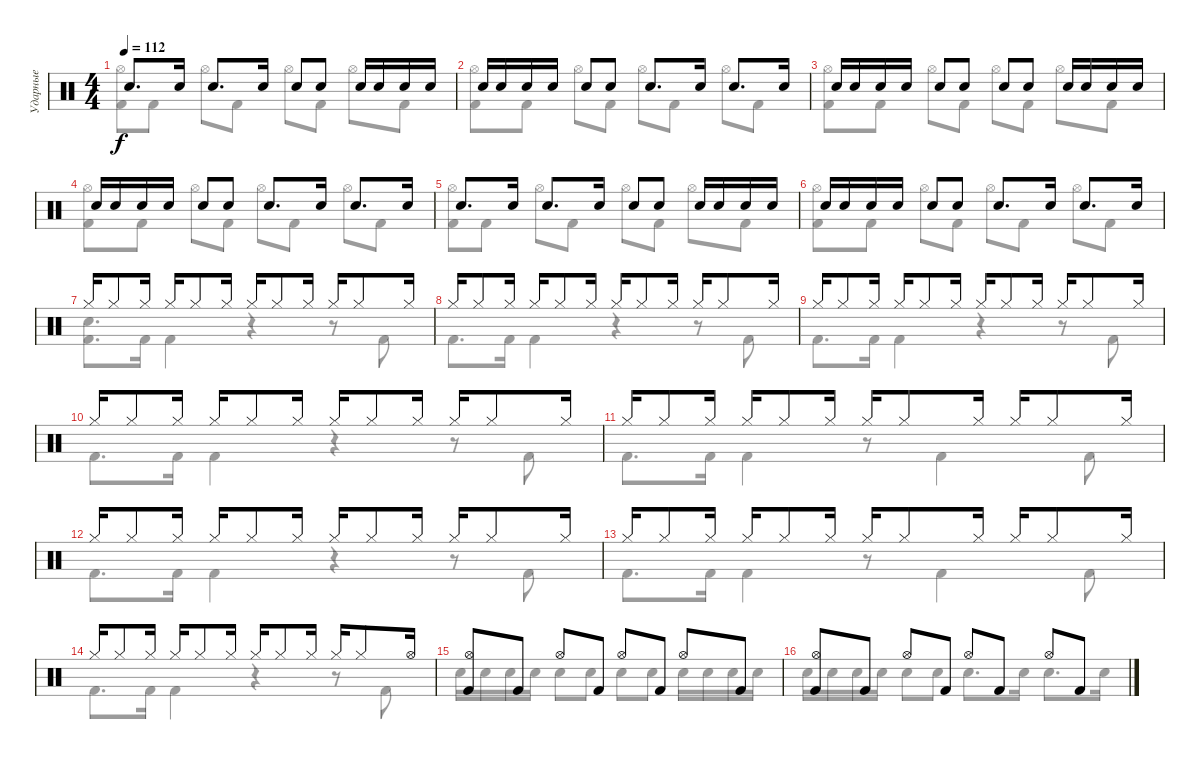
\track ("Ударные" "Ударные") {instrument percussion}
\staff {score}
\articulation defaults
\voice
\ts (4 4)
\tempo 112
\clef neutral
\ks c "Snare (hit) 2".8{d dy f} "Snare (hit) 2".16 "Snare (hit) 2".8{d} "Snare (hit) 2".16 "Snare (hit) 2".8 "Snare (hit) 2".8 "Snare (hit) 2".16 "Snare (hit) 2".16 "Snare (hit) 2".16 "Snare (hit) 2".16
|
"Snare (hit) 2".16 "Snare (hit) 2".16 "Snare (hit) 2".16 "Snare (hit) 2".16 "Snare (hit) 2".8 "Snare (hit) 2".8 "Snare (hit) 2".8{d} "Snare (hit) 2".16 "Snare (hit) 2".8{d} "Snare (hit) 2".16 |
"Snare (hit) 2".16 "Snare (hit) 2".16 "Snare (hit) 2".16 "Snare (hit) 2".16 "Snare (hit) 2".8 "Snare (hit) 2".8 "Snare (hit) 2".8 "Snare (hit) 2".8 "Snare (hit) 2".16 "Snare (hit) 2".16 "Snare (hit) 2".16 "Snare (hit) 2".16 |
"Snare (hit) 2".16 "Snare (hit) 2".16 "Snare (hit) 2".16 "Snare (hit) 2".16 "Snare (hit) 2".8 "Snare (hit) 2".8 "Snare (hit) 2".8{d} "Snare (hit) 2".16 "Snare (hit) 2".8{d} "Snare (hit) 2".16 |
"Snare (hit) 2".8{d} "Snare (hit) 2".16 "Snare (hit) 2".8{d} "Snare (hit) 2".16 "Snare (hit) 2".8 "Snare (hit) 2".8 "Snare (hit) 2".16 "Snare (hit) 2".16 "Snare (hit) 2".16 "Snare (hit) 2".16 |
"Snare (hit) 2".16 "Snare (hit) 2".16 "Snare (hit) 2".16 "Snare (hit) 2".16 "Snare (hit) 2".8 "Snare (hit) 2".8 "Snare (hit) 2".8{d} "Snare (hit) 2".16 "Snare (hit) 2".8{d} "Snare (hit) 2".16 |
"Hi-Hat (closed)".16 "Hi-Hat (closed)".8 "Hi-Hat (closed)".16 "Hi-Hat (closed)".16 "Hi-Hat (closed)".8 "Hi-Hat (closed)".16 "Hi-Hat (closed)".16 "Hi-Hat (closed)".8 "Hi-Hat (closed)".16 "Hi-Hat (closed)".16 "Hi-Hat (closed)".8 "Hi-Hat (closed)".16 |
"Hi-Hat (closed)".16 "Hi-Hat (closed)".8 "Hi-Hat (closed)".16 "Hi-Hat (closed)".16 "Hi-Hat (closed)".8 "Hi-Hat (closed)".16 "Hi-Hat (closed)".16 "Hi-Hat (closed)".8 "Hi-Hat (closed)".16 "Hi-Hat (closed)".16 "Hi-Hat (closed)".8 "Hi-Hat (closed)".16 |
"Hi-Hat (closed)".16 "Hi-Hat (closed)".8 "Hi-Hat (closed)".16 "Hi-Hat (closed)".16 "Hi-Hat (closed)".8 "Hi-Hat (closed)".16 "Hi-Hat (closed)".16 "Hi-Hat (closed)".8 "Hi-Hat (closed)".16 "Hi-Hat (closed)".16 "Hi-Hat (closed)".8 "Hi-Hat (closed)".16 |
"Hi-Hat (closed)".16 "Hi-Hat (closed)".8 "Hi-Hat (closed)".16 "Hi-Hat (closed)".16 "Hi-Hat (closed)".8 "Hi-Hat (closed)".16 "Hi-Hat (closed)".16 "Hi-Hat (closed)".8 "Hi-Hat (closed)".16 "Hi-Hat (closed)".16 "Hi-Hat (closed)".8 "Hi-Hat (closed)".16 |
"Hi-Hat (closed)".16 "Hi-Hat (closed)".8 "Hi-Hat (closed)".16 "Hi-Hat (closed)".16 "Hi-Hat (closed)".8 "Hi-Hat (closed)".16 "Hi-Hat (closed)".16 "Hi-Hat (closed)".8 "Hi-Hat (closed)".16 "Hi-Hat (closed)".16 "Hi-Hat (closed)".8 "Hi-Hat (closed)".16 |
"Hi-Hat (closed)".16 "Hi-Hat (closed)".8 "Hi-Hat (closed)".16 "Hi-Hat (closed)".16 "Hi-Hat (closed)".8 "Hi-Hat (closed)".16 "Hi-Hat (closed)".16 "Hi-Hat (closed)".8 "Hi-Hat (closed)".16 "Hi-Hat (closed)".16 "Hi-Hat (closed)".8 "Hi-Hat (closed)".16 |
"Hi-Hat (closed)".16 "Hi-Hat (closed)".8 "Hi-Hat (closed)".16 "Hi-Hat (closed)".16 "Hi-Hat (closed)".8 "Hi-Hat (closed)".16 "Hi-Hat (closed)".16 "Hi-Hat (closed)".8 "Hi-Hat (closed)".16 "Hi-Hat (closed)".16 "Hi-Hat (closed)".8 "Hi-Hat (closed)".16 |
"Hi-Hat (closed)".16 "Hi-Hat (closed)".8 "Hi-Hat (closed)".16 "Hi-Hat (closed)".16 "Hi-Hat (closed)".8 "Hi-Hat (closed)".16 "Hi-Hat (closed)".16 "Hi-Hat (closed)".8 "Hi-Hat (closed)".16 "Hi-Hat (closed)".16 "Hi-Hat (closed)".8 "Hi-Hat (open)".16 |
("Hi-Hat (open)" "Kick (hit) 2").8 "Kick (hit) 2".8 "Hi-Hat (open)".8 "Kick (hit) 2".8 "Hi-Hat (open)".8 "Kick (hit) 2".8 "Hi-Hat (open)".8 "Kick (hit) 2".8 |
("Hi-Hat (open)" "Kick (hit) 2").8 "Kick (hit) 2".8 "Hi-Hat (open)".8 "Kick (hit) 2".8 "Hi-Hat (open)".8 "Kick (hit) 2".8 "Hi-Hat (open)".8 "Kick (hit) 2".8
\voice
\clef neutral
\ottava regular
\simile none
\ks c
("Kick (hit) 2" "Hi-Hat (open)").8{dy f} "Kick (hit) 2".8 "Hi-Hat (open)".8 "Kick (hit) 2".8 "Hi-Hat (open)".8 "Kick (hit) 2".8 "Hi-Hat (open)".8 "Kick (hit) 2".8 |
("Kick (hit) 2" "Hi-Hat (open)").8 "Kick (hit) 2".8 "Hi-Hat (open)".8 "Kick (hit) 2".8 "Hi-Hat (open)".8 "Kick (hit) 2".8 "Hi-Hat (open)".8 "Kick (hit) 2".8 |
("Kick (hit) 2" "Hi-Hat (open)").8 "Kick (hit) 2".8 "Hi-Hat (open)".8 "Kick (hit) 2".8 "Hi-Hat (open)".8 "Kick (hit) 2".8 "Hi-Hat (open)".8 "Kick (hit) 2".8 |
("Kick (hit) 2" "Hi-Hat (open)").8 "Kick (hit) 2".8 "Hi-Hat (open)".8 "Kick (hit) 2".8 "Hi-Hat (open)".8 "Kick (hit) 2".8 "Hi-Hat (open)".8 "Kick (hit) 2".8 |
("Kick (hit) 2" "Hi-Hat (open)").8 "Kick (hit) 2".8 "Hi-Hat (open)".8 "Kick (hit) 2".8 "Hi-Hat (open)".8 "Kick (hit) 2".8 "Hi-Hat (open)".8 "Kick (hit) 2".8 |
("Kick (hit) 2" "Hi-Hat (open)").8 "Kick (hit) 2".8 "Hi-Hat (open)".8 "Kick (hit) 2".8 "Hi-Hat (open)".8 "Kick (hit) 2".8 "Hi-Hat (open)".8 "Kick (hit) 2".8 |
("Snare (hit) 2" "Kick (hit) 2").8{d} "Kick (hit) 2".16 "Kick (hit) 2".4 r.4 r.8 "Kick (hit) 2".8 |
"Kick (hit) 2".8{d} "Kick (hit) 2".16 "Kick (hit) 2".4 r.4 r.8 "Kick (hit) 2".8 |
"Kick (hit) 2".8{d} "Kick (hit) 2".16 "Kick (hit) 2".4 r.4 r.8 "Kick (hit) 2".8 |
"Kick (hit) 2".8{d} "Kick (hit) 2".16 "Kick (hit) 2".4 r.4 r.8 "Kick (hit) 2".8 |
"Kick (hit) 2".8{d} "Kick (hit) 2".16 "Kick (hit) 2".4 r.8 "Kick (hit) 2".4 "Kick (hit) 2".8 |
"Kick (hit) 2".8{d} "Kick (hit) 2".16 "Kick (hit) 2".4 r.4 r.8 "Kick (hit) 2".8 |
"Kick (hit) 2".8{d} "Kick (hit) 2".16 "Kick (hit) 2".4 r.8 "Kick (hit) 2".4 "Kick (hit) 2".8 |
"Kick (hit) 2".8{d} "Kick (hit) 2".16 "Kick (hit) 2".4 r.4 r.8 "Kick (hit) 2".8 |
"Snare (hit) 2".16 "Snare (hit) 2".16 "Snare (hit) 2".16 "Snare (hit) 2".16 "Snare (hit) 2".8 "Snare (hit) 2".8 "Snare (hit) 2".8 "Snare (hit) 2".8 "Snare (hit) 2".16 "Snare (hit) 2".16 "Snare (hit) 2".16 "Snare (hit) 2".16 |
"Snare (hit) 2".16 "Snare (hit) 2".16 "Snare (hit) 2".16 "Snare (hit) 2".16 "Snare (hit) 2".8 "Snare (hit) 2".8 "Snare (hit) 2".8{d} "Snare (hit) 2".16 "Snare (hit) 2".8{d} "Snare (hit) 2".16
